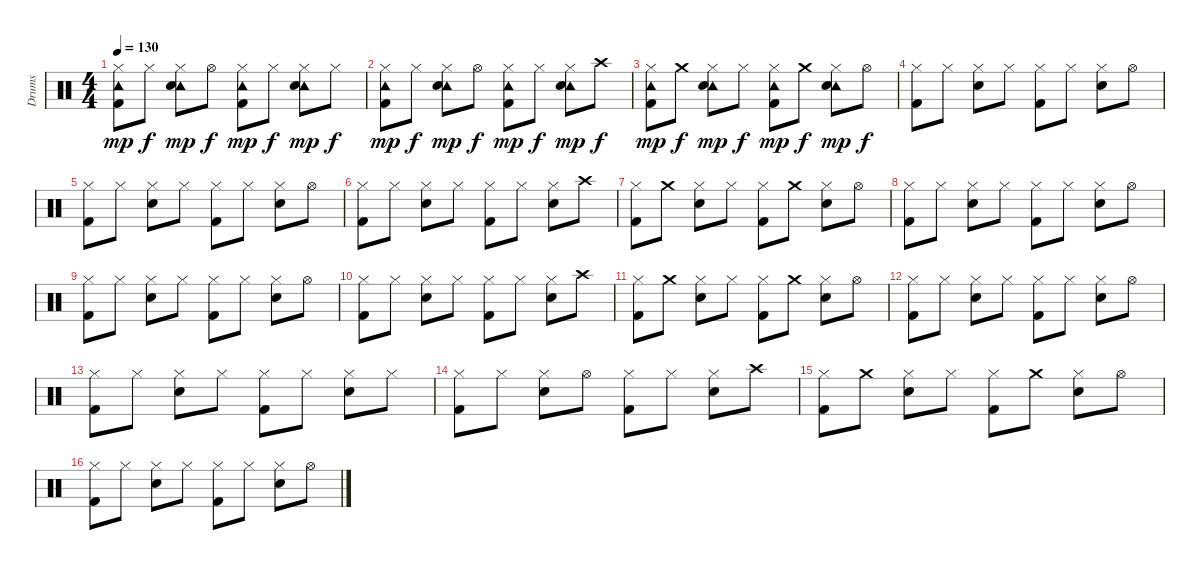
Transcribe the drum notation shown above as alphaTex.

\track ("Drums" "Drums") {instrument percussion}
\staff {score}
\articulation defaults
\ts (4 4)
\tempo 130
\clef neutral
\ks c
("Hi-Hat (closed)" "Tambourine (hit)" "Kick (hit) 2").8{dy mp} "Hi-Hat (closed)".8{dy f} ("Hi-Hat (closed)" "Tambourine (hit)" "Electric Snare (hit)").8{dy mp} "Hi-Hat (open)".8{dy f} ("Hi-Hat (closed)" "Tambourine (hit)" "Kick (hit) 2").8{dy mp} "Hi-Hat (closed)".8{dy f} ("Hi-Hat (closed)" "Tambourine (hit)" "Electric Snare (hit)").8{dy mp} "Hi-Hat (closed)".8{dy f} |
("Hi-Hat (closed)" "Tambourine (hit)" "Kick (hit) 2").8{dy mp} "Hi-Hat (closed)".8{dy f} ("Hi-Hat (closed)" "Tambourine (hit)" "Electric Snare (hit)").8{dy mp} "Hi-Hat (open)".8{dy f} ("Hi-Hat (closed)" "Tambourine (hit)" "Kick (hit) 2").8{dy mp} "Hi-Hat (closed)".8{dy f} ("Hi-Hat (closed)" "Tambourine (hit)" "Electric Snare (hit)").8{dy mp} "Crash high (hit)".8{dy f} |
("Hi-Hat (closed)" "Tambourine (hit)" "Kick (hit) 2").8{dy mp} "Crash medium (hit)".8{dy f} ("Hi-Hat (closed)" "Tambourine (hit)" "Electric Snare (hit)").8{dy mp} "Hi-Hat (closed)".8{dy f} ("Hi-Hat (closed)" "Tambourine (hit)" "Kick (hit) 2").8{dy mp} "Crash medium (hit)".8{dy f} ("Hi-Hat (closed)" "Tambourine (hit)" "Electric Snare (hit)").8{dy mp} "Hi-Hat (open)".8{dy f} |
("Hi-Hat (closed)" "Kick (hit) 2").8 "Hi-Hat (closed)".8 ("Hi-Hat (closed)" "Electric Snare (hit)").8 "Hi-Hat (closed)".8 ("Hi-Hat (closed)" "Kick (hit) 2").8 "Hi-Hat (closed)".8 ("Hi-Hat (closed)" "Electric Snare (hit)").8 "Hi-Hat (open)".8 |
("Hi-Hat (closed)" "Kick (hit) 2").8 "Hi-Hat (closed)".8 ("Hi-Hat (closed)" "Electric Snare (hit)").8 "Hi-Hat (closed)".8 ("Hi-Hat (closed)" "Kick (hit) 2").8 "Hi-Hat (closed)".8 ("Hi-Hat (closed)" "Electric Snare (hit)").8 "Hi-Hat (open)".8 |
("Hi-Hat (closed)" "Kick (hit) 2").8 "Hi-Hat (closed)".8 ("Hi-Hat (closed)" "Electric Snare (hit)").8 "Hi-Hat (closed)".8 ("Hi-Hat (closed)" "Kick (hit) 2").8 "Hi-Hat (closed)".8 ("Hi-Hat (closed)" "Electric Snare (hit)").8 "Crash high (hit)".8 |
("Hi-Hat (closed)" "Kick (hit) 2").8 "Crash medium (hit)".8 ("Hi-Hat (closed)" "Electric Snare (hit)").8 "Hi-Hat (closed)".8 ("Hi-Hat (closed)" "Kick (hit) 2").8 "Crash medium (hit)".8 ("Hi-Hat (closed)" "Electric Snare (hit)").8 "Hi-Hat (open)".8 |
("Hi-Hat (closed)" "Kick (hit) 2").8 "Hi-Hat (closed)".8 ("Hi-Hat (closed)" "Electric Snare (hit)").8 "Hi-Hat (closed)".8 ("Hi-Hat (closed)" "Kick (hit) 2").8 "Hi-Hat (closed)".8 ("Hi-Hat (closed)" "Electric Snare (hit)").8 "Hi-Hat (open)".8 |
("Hi-Hat (closed)" "Kick (hit) 2").8 "Hi-Hat (closed)".8 ("Hi-Hat (closed)" "Electric Snare (hit)").8 "Hi-Hat (closed)".8 ("Hi-Hat (closed)" "Kick (hit) 2").8 "Hi-Hat (closed)".8 ("Hi-Hat (closed)" "Electric Snare (hit)").8 "Hi-Hat (open)".8 |
("Hi-Hat (closed)" "Kick (hit) 2").8 "Hi-Hat (closed)".8 ("Hi-Hat (closed)" "Electric Snare (hit)").8 "Hi-Hat (closed)".8 ("Hi-Hat (closed)" "Kick (hit) 2").8 "Hi-Hat (closed)".8 ("Hi-Hat (closed)" "Electric Snare (hit)").8 "Crash high (hit)".8 |
("Hi-Hat (closed)" "Kick (hit) 2").8 "Crash medium (hit)".8 ("Hi-Hat (closed)" "Electric Snare (hit)").8 "Hi-Hat (closed)".8 ("Hi-Hat (closed)" "Kick (hit) 2").8 "Crash medium (hit)".8 ("Hi-Hat (closed)" "Electric Snare (hit)").8 "Hi-Hat (open)".8 |
("Hi-Hat (closed)" "Kick (hit) 2").8 "Hi-Hat (closed)".8 ("Hi-Hat (closed)" "Electric Snare (hit)").8 "Hi-Hat (closed)".8 ("Hi-Hat (closed)" "Kick (hit) 2").8 "Hi-Hat (closed)".8 ("Hi-Hat (closed)" "Electric Snare (hit)").8 "Hi-Hat (open)".8 |
("Hi-Hat (closed)" "Kick (hit) 2").8 "Hi-Hat (closed)".8 ("Hi-Hat (closed)" "Electric Snare (hit)").8 "Hi-Hat (closed)".8 ("Hi-Hat (closed)" "Kick (hit) 2").8 "Hi-Hat (closed)".8 ("Hi-Hat (closed)" "Electric Snare (hit)").8 "Hi-Hat (closed)".8 |
("Hi-Hat (closed)" "Kick (hit) 2").8 "Hi-Hat (closed)".8 ("Hi-Hat (closed)" "Electric Snare (hit)").8 "Hi-Hat (open)".8 ("Hi-Hat (closed)" "Kick (hit) 2").8 "Hi-Hat (closed)".8 ("Hi-Hat (closed)" "Electric Snare (hit)").8 "Crash high (hit)".8 |
("Hi-Hat (closed)" "Kick (hit) 2").8 "Crash medium (hit)".8 ("Hi-Hat (closed)" "Electric Snare (hit)").8 "Hi-Hat (closed)".8 ("Hi-Hat (closed)" "Kick (hit) 2").8 "Crash medium (hit)".8 ("Hi-Hat (closed)" "Electric Snare (hit)").8 "Hi-Hat (open)".8 |
("Hi-Hat (closed)" "Kick (hit) 2").8 "Hi-Hat (closed)".8 ("Hi-Hat (closed)" "Electric Snare (hit)").8 "Hi-Hat (closed)".8 ("Hi-Hat (closed)" "Kick (hit) 2").8 "Hi-Hat (closed)".8 ("Hi-Hat (closed)" "Electric Snare (hit)").8 "Hi-Hat (open)".8
